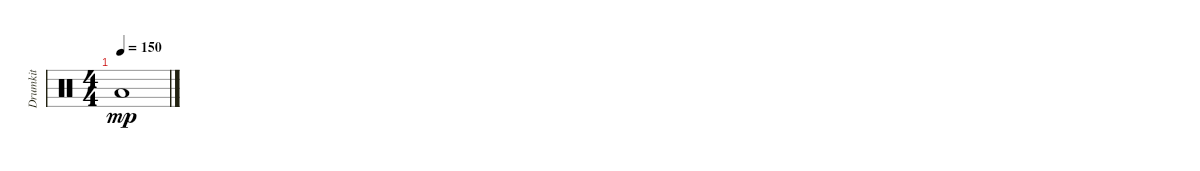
\track ("Drumkit" "Drumkit") {instrument percussion}
\staff {score}
\articulation defaults
\ts (4 4)
\tempo 150
\clef neutral
\ks c "Low Floor Tom (hit)".1{dy mp}
